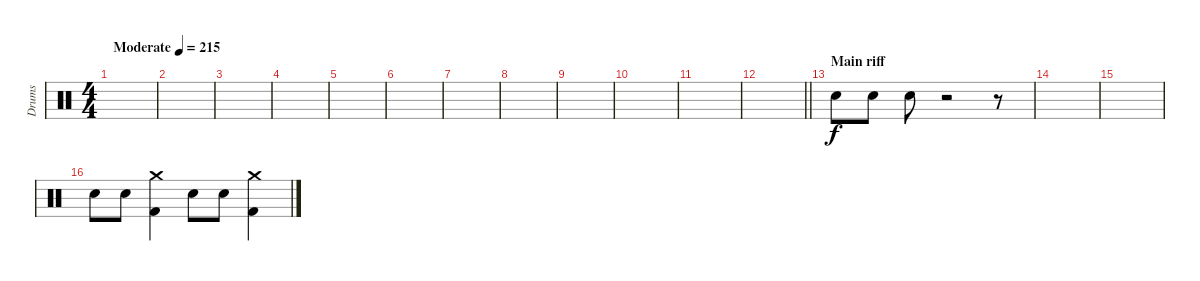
\track ("Drums" "Drums") {instrument percussion}
\staff {score}
\articulation defaults
\ts (4 4)
\tempo (215 "Moderate")
\clef neutral
\ks c
|
|
|
|
|
|
|
|
|
|
|
\barLineRight lightlight
|
\section ("" "Main riff")
"Electric Snare (hit)".8 "Electric Snare (hit)".8 "Electric Snare (hit)".8 r.2 r.8 |
|
|
"Electric Snare (hit)".8 "Electric Snare (hit)".8 ("Crash medium (hit)" "Kick (hit) 2").4 "Electric Snare (hit)".8 "Electric Snare (hit)".8 ("Crash medium (hit)" "Kick (hit) 2").4
